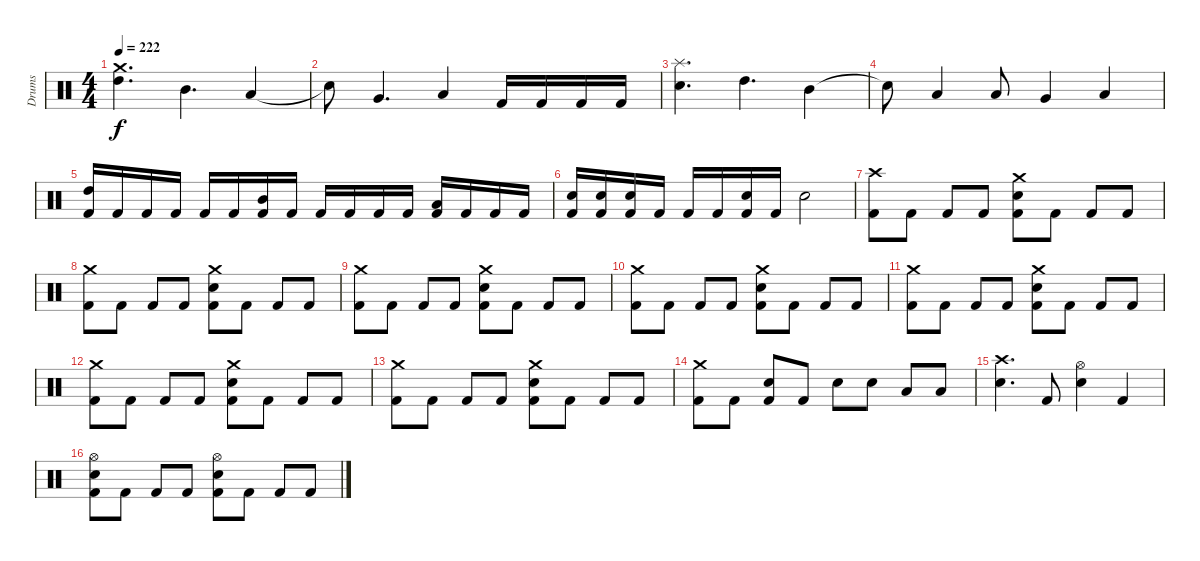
\track ("Drums" "Drums") {instrument percussion}
\staff {score}
\articulation defaults
\ts (4 4)
\tempo 222
\clef neutral
\ks c
("Crash medium (hit)" "High Tom (hit)").4{d dy f} "Mid Tom (hit)".4{d} "Low Tom (hit)".4 |
"Snare (hit)"{t}.8 "Very Low Tom (hit)".4{d} "Low Floor Tom (hit)".4 "Kick (hit) 2".16 "Kick (hit) 2".16 "Kick (hit) 2".16 "Kick (hit) 2".16 |
("Splash (hit)" "Snare (hit) 2").4{d} "High Tom (hit)".4{d} "Mid Tom (hit)".4 |
"Snare (hit)"{t}.8 "Low Tom (hit)".4 "Low Tom (hit)".8 "Very Low Tom (hit)".4 "Low Floor Tom (hit)".4 |
("High Tom (hit)" "Kick (hit) 2").16 "Kick (hit) 2".16 "Kick (hit) 2".16 "Kick (hit) 2".16 "Kick (hit) 2".16 "Kick (hit) 2".16 ("Mid Tom (hit)" "Kick (hit) 2").16 "Kick (hit) 2".16 "Kick (hit) 2".16 "Kick (hit) 2".16 "Kick (hit) 2".16 "Kick (hit) 2".16 ("Low Tom (hit)" "Kick (hit) 2").16 "Kick (hit) 2".16 "Kick (hit) 2".16 "Kick (hit) 2".16 |
("Snare (hit) 2" "Kick (hit) 2").16 ("Snare (hit) 2" "Kick (hit) 2").16 ("Snare (hit) 2" "Kick (hit) 2").16 "Kick (hit) 2".16 "Kick (hit) 2".16 "Kick (hit) 2".16 ("Snare (hit) 2" "Kick (hit) 2").16 "Kick (hit) 2".16 "Snare (hit) 2".2 |
("Crash high (hit)" "Kick (hit) 2").8 "Kick (hit) 2".8 "Kick (hit) 2".8 "Kick (hit) 2".8 ("Crash medium (hit)" "Snare (hit) 2" "Kick (hit) 2").8 "Kick (hit) 2".8 "Kick (hit) 2".8 "Kick (hit) 2".8 |
("Crash medium (hit)" "Kick (hit) 2").8 "Kick (hit) 2".8 "Kick (hit) 2".8 "Kick (hit) 2".8 ("Crash medium (hit)" "Snare (hit) 2" "Kick (hit) 2").8 "Kick (hit) 2".8 "Kick (hit) 2".8 "Kick (hit) 2".8 |
("Crash medium (hit)" "Kick (hit) 2").8 "Kick (hit) 2".8 "Kick (hit) 2".8 "Kick (hit) 2".8 ("Crash medium (hit)" "Snare (hit) 2" "Kick (hit) 2").8 "Kick (hit) 2".8 "Kick (hit) 2".8 "Kick (hit) 2".8 |
("Crash medium (hit)" "Kick (hit) 2").8 "Kick (hit) 2".8 "Kick (hit) 2".8 "Kick (hit) 2".8 ("Crash medium (hit)" "Snare (hit) 2" "Kick (hit) 2").8 "Kick (hit) 2".8 "Kick (hit) 2".8 "Kick (hit) 2".8 |
("Crash medium (hit)" "Kick (hit) 2").8 "Kick (hit) 2".8 "Kick (hit) 2".8 "Kick (hit) 2".8 ("Crash medium (hit)" "Snare (hit) 2" "Kick (hit) 2").8 "Kick (hit) 2".8 "Kick (hit) 2".8 "Kick (hit) 2".8 |
("Crash medium (hit)" "Kick (hit) 2").8 "Kick (hit) 2".8 "Kick (hit) 2".8 "Kick (hit) 2".8 ("Crash medium (hit)" "Snare (hit) 2" "Kick (hit) 2").8 "Kick (hit) 2".8 "Kick (hit) 2".8 "Kick (hit) 2".8 |
("Crash medium (hit)" "Kick (hit) 2").8 "Kick (hit) 2".8 "Kick (hit) 2".8 "Kick (hit) 2".8 ("Crash medium (hit)" "Snare (hit) 2" "Kick (hit) 2").8 "Kick (hit) 2".8 "Kick (hit) 2".8 "Kick (hit) 2".8 |
("Crash medium (hit)" "Kick (hit) 2").8 "Kick (hit) 2".8 ("Snare (hit) 2" "Kick (hit) 2").8 "Kick (hit) 2".8 "Snare (hit) 2".8 "Snare (hit) 2".8 "Low Tom (hit)".8 "Low Tom (hit)".8 |
("Crash high (hit)" "Snare (hit) 2").4{d} "Kick (hit) 2".8 ("Hi-Hat (open)" "Snare (hit) 2").4 "Kick (hit) 2".4 |
("Hi-Hat (open)" "Snare (hit) 2" "Kick (hit) 2").8 "Kick (hit) 2".8 "Kick (hit) 2".8 "Kick (hit) 2".8 ("Hi-Hat (open)" "Snare (hit) 2" "Kick (hit) 2").8 "Kick (hit) 2".8 "Kick (hit) 2".8 "Kick (hit) 2".8
